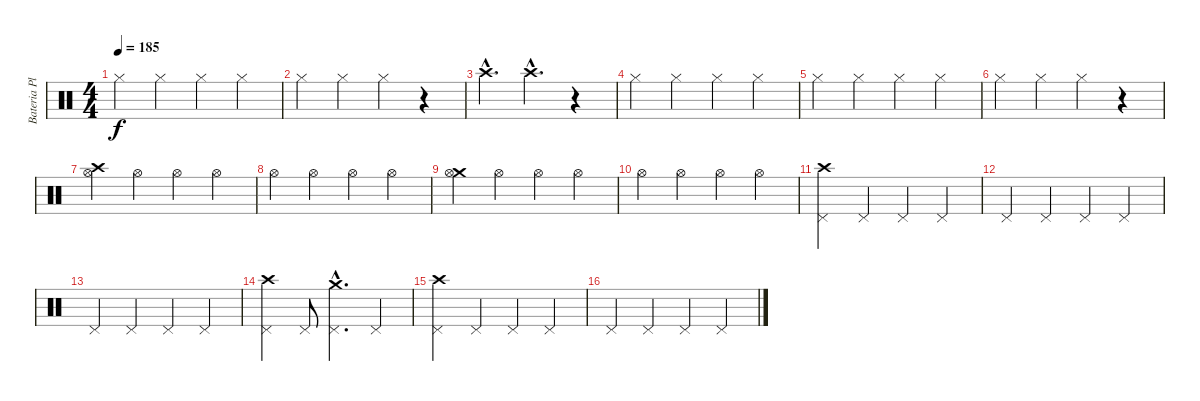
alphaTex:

\track ("Bateria Platos" "Bateria Pl") {instrument percussion}
\staff {score}
\articulation defaults
\ts (4 4)
\tempo 185
\clef neutral
\ks c "Hi-Hat (closed)".4{dy f} "Hi-Hat (closed)".4 "Hi-Hat (closed)".4 "Hi-Hat (closed)".4
|
"Hi-Hat (closed)".4 "Hi-Hat (closed)".4 "Hi-Hat (closed)".4 r.4 |
"Crash high (hit)"{hac}.4{d} "Crash high (hit)"{hac}.4{d} r.4 |
"Hi-Hat (closed)".4 "Hi-Hat (closed)".4 "Hi-Hat (closed)".4 "Hi-Hat (closed)".4 |
"Hi-Hat (closed)".4 "Hi-Hat (closed)".4 "Hi-Hat (closed)".4 "Hi-Hat (closed)".4 |
"Hi-Hat (closed)".4 "Hi-Hat (closed)".4 "Hi-Hat (closed)".4 r.4 |
("Crash high (hit)" "Hi-Hat (open)").4 "Hi-Hat (open)".4 "Hi-Hat (open)".4 "Hi-Hat (open)".4 |
"Hi-Hat (open)".4 "Hi-Hat (open)".4 "Hi-Hat (open)".4 "Hi-Hat (open)".4 |
("Crash medium (hit)" "Hi-Hat (open)").4 "Hi-Hat (open)".4 "Hi-Hat (open)".4 "Hi-Hat (open)".4 |
"Hi-Hat (open)".4 "Hi-Hat (open)".4 "Hi-Hat (open)".4 "Hi-Hat (open)".4 |
("Crash high (hit)" "Pedal Hi-Hat (hit)").4 "Pedal Hi-Hat (hit)".4 "Pedal Hi-Hat (hit)".4 "Pedal Hi-Hat (hit)".4 |
"Pedal Hi-Hat (hit)".4 "Pedal Hi-Hat (hit)".4 "Pedal Hi-Hat (hit)".4 "Pedal Hi-Hat (hit)".4 |
"Pedal Hi-Hat (hit)".4 "Pedal Hi-Hat (hit)".4 "Pedal Hi-Hat (hit)".4 "Pedal Hi-Hat (hit)".4 |
("Crash high (hit)" "Pedal Hi-Hat (hit)").4 "Pedal Hi-Hat (hit)".8 ("Crash medium (hit)"{hac} "Pedal Hi-Hat (hit)"{hac}).4{d} "Pedal Hi-Hat (hit)".4 |
("Crash high (hit)" "Pedal Hi-Hat (hit)").4 "Pedal Hi-Hat (hit)".4 "Pedal Hi-Hat (hit)".4 "Pedal Hi-Hat (hit)".4 |
"Pedal Hi-Hat (hit)".4 "Pedal Hi-Hat (hit)".4 "Pedal Hi-Hat (hit)".4 "Pedal Hi-Hat (hit)".4
